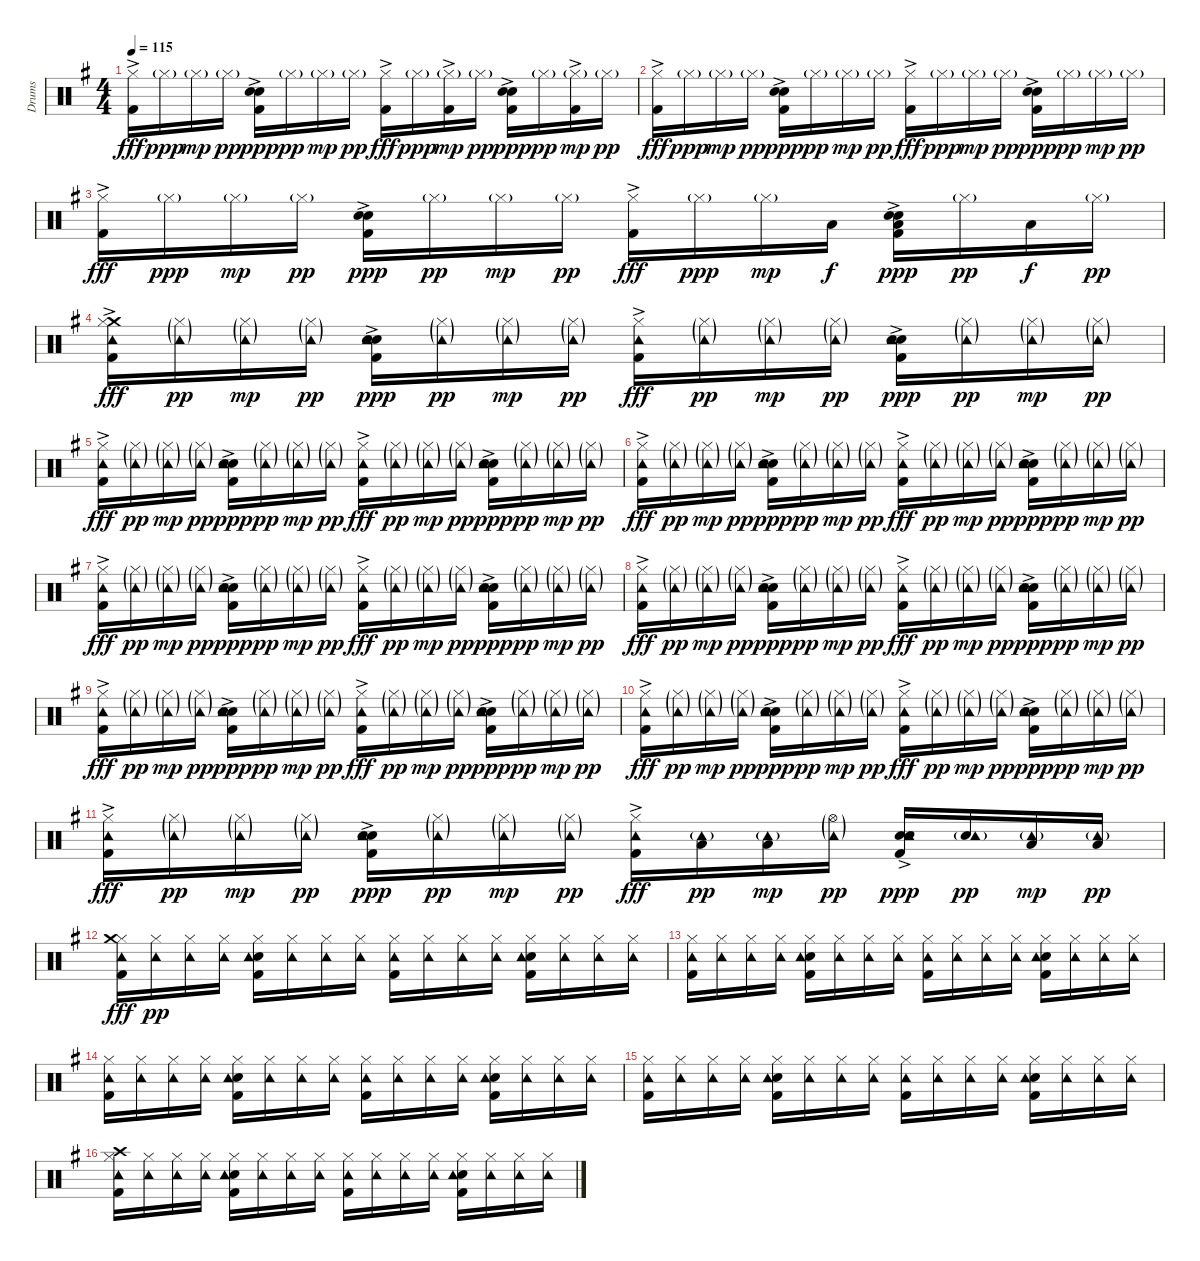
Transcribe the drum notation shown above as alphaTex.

\track ("Drums" "Drums") {instrument percussion}
\staff {score}
\articulation defaults
\ts (4 4)
\tempo 115
\clef neutral
\ks g
("Kick (hit) 2"{ac} "Hi-Hat (closed)").16{dy fff} "Hi-Hat (closed)"{g}.16{dy ppp} "Hi-Hat (closed)"{g}.16{dy mp} "Hi-Hat (closed)"{g}.16{dy pp} ("Kick (hit) 2"{ac} "Snare (hit) 2"{ac} "Electric Snare (hit)").16{dy ppp} "Hi-Hat (closed)"{g}.16{dy pp} "Hi-Hat (closed)"{g}.16{dy mp} "Hi-Hat (closed)"{g}.16{dy pp} ("Kick (hit) 2"{ac} "Hi-Hat (closed)").16{dy fff} "Hi-Hat (closed)"{g}.16{dy ppp} ("Kick (hit) 2"{ac} "Hi-Hat (closed)"{g}).16{dy mp} "Hi-Hat (closed)"{g}.16{dy pp} ("Kick (hit) 2"{ac} "Snare (hit) 2"{ac} "Electric Snare (hit)").16{dy ppp} "Hi-Hat (closed)"{g}.16{dy pp} ("Kick (hit) 2"{ac} "Hi-Hat (closed)"{g}).16{dy mp} "Hi-Hat (closed)"{g}.16{dy pp} |
("Kick (hit) 2"{ac} "Hi-Hat (closed)").16{dy fff} "Hi-Hat (closed)"{g}.16{dy ppp} "Hi-Hat (closed)"{g}.16{dy mp} "Hi-Hat (closed)"{g}.16{dy pp} ("Kick (hit) 2"{ac} "Snare (hit) 2"{ac} "Electric Snare (hit)").16{dy ppp} "Hi-Hat (closed)"{g}.16{dy pp} "Hi-Hat (closed)"{g}.16{dy mp} "Hi-Hat (closed)"{g}.16{dy pp} ("Kick (hit) 2"{ac} "Hi-Hat (closed)").16{dy fff} "Hi-Hat (closed)"{g}.16{dy ppp} "Hi-Hat (closed)"{g}.16{dy mp} "Hi-Hat (closed)"{g}.16{dy pp} ("Kick (hit) 2"{ac} "Snare (hit) 2"{ac} "Electric Snare (hit)").16{dy ppp} "Hi-Hat (closed)"{g}.16{dy pp} "Hi-Hat (closed)"{g}.16{dy mp} "Hi-Hat (closed)"{g}.16{dy pp} |
("Kick (hit) 2"{ac} "Hi-Hat (closed)").16{dy fff} "Hi-Hat (closed)"{g}.16{dy ppp} "Hi-Hat (closed)"{g}.16{dy mp} "Hi-Hat (closed)"{g}.16{dy pp} ("Kick (hit) 2"{ac} "Snare (hit) 2"{ac} "Electric Snare (hit)").16{dy ppp} "Hi-Hat (closed)"{g}.16{dy pp} "Hi-Hat (closed)"{g}.16{dy mp} "Hi-Hat (closed)"{g}.16{dy pp} ("Kick (hit) 2"{ac} "Hi-Hat (closed)").16{dy fff} "Hi-Hat (closed)"{g}.16{dy ppp} "Hi-Hat (closed)"{g}.16{dy mp} "Low Tom (hit)".16{dy f} ("Kick (hit) 2"{ac} "Snare (hit) 2"{ac} "Electric Snare (hit)" "Low Tom (hit)").16{dy ppp} "Hi-Hat (closed)"{g}.16{dy pp} "Low Floor Tom (hit)".16{dy f} "Hi-Hat (closed)"{g}.16{dy pp} |
("Kick (hit) 2"{ac} "Crash medium (hit)" "Hi-Hat (closed)" "Tambourine (hit)").16{dy fff} ("Hi-Hat (closed)"{g} "Tambourine (hit)"{g}).16{dy pp} ("Hi-Hat (closed)"{g} "Tambourine (hit)"{g}).16{dy mp} ("Hi-Hat (closed)"{g} "Tambourine (hit)"{g}).16{dy pp} ("Kick (hit) 2"{ac} "Snare (hit) 2"{ac} "Electric Snare (hit)" "Tambourine (hit)").16{dy ppp} ("Hi-Hat (closed)"{g} "Tambourine (hit)"{g}).16{dy pp} ("Hi-Hat (closed)"{g} "Tambourine (hit)"{g}).16{dy mp} ("Hi-Hat (closed)"{g} "Tambourine (hit)"{g}).16{dy pp} ("Kick (hit) 2"{ac} "Hi-Hat (closed)" "Tambourine (hit)").16{dy fff} ("Hi-Hat (closed)"{g} "Tambourine (hit)"{g}).16{dy pp} ("Hi-Hat (closed)"{g} "Tambourine (hit)"{g}).16{dy mp} ("Hi-Hat (closed)"{g} "Tambourine (hit)"{g}).16{dy pp} ("Kick (hit) 2"{ac} "Snare (hit) 2"{ac} "Electric Snare (hit)" "Tambourine (hit)").16{dy ppp} ("Hi-Hat (closed)"{g} "Tambourine (hit)"{g}).16{dy pp} ("Hi-Hat (closed)"{g} "Tambourine (hit)"{g}).16{dy mp} ("Hi-Hat (closed)"{g} "Tambourine (hit)"{g}).16{dy pp} |
("Kick (hit) 2"{ac} "Hi-Hat (closed)" "Tambourine (hit)").16{dy fff} ("Hi-Hat (closed)"{g} "Tambourine (hit)"{g}).16{dy pp} ("Hi-Hat (closed)"{g} "Tambourine (hit)"{g}).16{dy mp} ("Hi-Hat (closed)"{g} "Tambourine (hit)"{g}).16{dy pp} ("Kick (hit) 2"{ac} "Snare (hit) 2"{ac} "Electric Snare (hit)" "Tambourine (hit)").16{dy ppp} ("Hi-Hat (closed)"{g} "Tambourine (hit)"{g}).16{dy pp} ("Hi-Hat (closed)"{g} "Tambourine (hit)"{g}).16{dy mp} ("Hi-Hat (closed)"{g} "Tambourine (hit)"{g}).16{dy pp} ("Kick (hit) 2"{ac} "Hi-Hat (closed)" "Tambourine (hit)").16{dy fff} ("Hi-Hat (closed)"{g} "Tambourine (hit)"{g}).16{dy pp} ("Hi-Hat (closed)"{g} "Tambourine (hit)"{g}).16{dy mp} ("Hi-Hat (closed)"{g} "Tambourine (hit)"{g}).16{dy pp} ("Kick (hit) 2"{ac} "Snare (hit) 2"{ac} "Electric Snare (hit)" "Tambourine (hit)").16{dy ppp} ("Hi-Hat (closed)"{g} "Tambourine (hit)"{g}).16{dy pp} ("Hi-Hat (closed)"{g} "Tambourine (hit)"{g}).16{dy mp} ("Hi-Hat (closed)"{g} "Tambourine (hit)"{g}).16{dy pp} |
("Kick (hit) 2"{ac} "Hi-Hat (closed)" "Tambourine (hit)").16{dy fff} ("Hi-Hat (closed)"{g} "Tambourine (hit)"{g}).16{dy pp} ("Hi-Hat (closed)"{g} "Tambourine (hit)"{g}).16{dy mp} ("Hi-Hat (closed)"{g} "Tambourine (hit)"{g}).16{dy pp} ("Kick (hit) 2"{ac} "Snare (hit) 2"{ac} "Electric Snare (hit)" "Tambourine (hit)").16{dy ppp} ("Hi-Hat (closed)"{g} "Tambourine (hit)"{g}).16{dy pp} ("Hi-Hat (closed)"{g} "Tambourine (hit)"{g}).16{dy mp} ("Hi-Hat (closed)"{g} "Tambourine (hit)"{g}).16{dy pp} ("Kick (hit) 2"{ac} "Hi-Hat (closed)" "Tambourine (hit)").16{dy fff} ("Hi-Hat (closed)"{g} "Tambourine (hit)"{g}).16{dy pp} ("Hi-Hat (closed)"{g} "Tambourine (hit)"{g}).16{dy mp} ("Hi-Hat (closed)"{g} "Tambourine (hit)"{g}).16{dy pp} ("Kick (hit) 2"{ac} "Snare (hit) 2"{ac} "Electric Snare (hit)" "Tambourine (hit)").16{dy ppp} ("Hi-Hat (closed)"{g} "Tambourine (hit)"{g}).16{dy pp} ("Hi-Hat (closed)"{g} "Tambourine (hit)"{g}).16{dy mp} ("Hi-Hat (closed)"{g} "Tambourine (hit)"{g}).16{dy pp} |
("Kick (hit) 2"{ac} "Hi-Hat (closed)" "Tambourine (hit)").16{dy fff} ("Hi-Hat (closed)"{g} "Tambourine (hit)"{g}).16{dy pp} ("Hi-Hat (closed)"{g} "Tambourine (hit)"{g}).16{dy mp} ("Hi-Hat (closed)"{g} "Tambourine (hit)"{g}).16{dy pp} ("Kick (hit) 2"{ac} "Snare (hit) 2"{ac} "Electric Snare (hit)" "Tambourine (hit)").16{dy ppp} ("Hi-Hat (closed)"{g} "Tambourine (hit)"{g}).16{dy pp} ("Hi-Hat (closed)"{g} "Tambourine (hit)"{g}).16{dy mp} ("Hi-Hat (closed)"{g} "Tambourine (hit)"{g}).16{dy pp} ("Kick (hit) 2"{ac} "Hi-Hat (closed)" "Tambourine (hit)").16{dy fff} ("Hi-Hat (closed)"{g} "Tambourine (hit)"{g}).16{dy pp} ("Hi-Hat (closed)"{g} "Tambourine (hit)"{g}).16{dy mp} ("Hi-Hat (closed)"{g} "Tambourine (hit)"{g}).16{dy pp} ("Kick (hit) 2"{ac} "Snare (hit) 2"{ac} "Electric Snare (hit)" "Tambourine (hit)").16{dy ppp} ("Hi-Hat (closed)"{g} "Tambourine (hit)"{g}).16{dy pp} ("Hi-Hat (closed)"{g} "Tambourine (hit)"{g}).16{dy mp} ("Hi-Hat (closed)"{g} "Tambourine (hit)"{g}).16{dy pp} |
("Kick (hit) 2"{ac} "Hi-Hat (closed)" "Tambourine (hit)").16{dy fff} ("Hi-Hat (closed)"{g} "Tambourine (hit)"{g}).16{dy pp} ("Hi-Hat (closed)"{g} "Tambourine (hit)"{g}).16{dy mp} ("Hi-Hat (closed)"{g} "Tambourine (hit)"{g}).16{dy pp} ("Kick (hit) 2"{ac} "Snare (hit) 2"{ac} "Electric Snare (hit)" "Tambourine (hit)").16{dy ppp} ("Hi-Hat (closed)"{g} "Tambourine (hit)"{g}).16{dy pp} ("Hi-Hat (closed)"{g} "Tambourine (hit)"{g}).16{dy mp} ("Hi-Hat (closed)"{g} "Tambourine (hit)"{g}).16{dy pp} ("Kick (hit) 2"{ac} "Hi-Hat (closed)" "Tambourine (hit)").16{dy fff} ("Hi-Hat (closed)"{g} "Tambourine (hit)"{g}).16{dy pp} ("Hi-Hat (closed)"{g} "Tambourine (hit)"{g}).16{dy mp} ("Hi-Hat (closed)"{g} "Tambourine (hit)"{g}).16{dy pp} ("Kick (hit) 2"{ac} "Snare (hit) 2"{ac} "Electric Snare (hit)" "Tambourine (hit)").16{dy ppp} ("Hi-Hat (closed)"{g} "Tambourine (hit)"{g}).16{dy pp} ("Hi-Hat (closed)"{g} "Tambourine (hit)"{g}).16{dy mp} ("Hi-Hat (closed)"{g} "Tambourine (hit)"{g}).16{dy pp} |
("Kick (hit) 2"{ac} "Hi-Hat (closed)" "Tambourine (hit)").16{dy fff} ("Hi-Hat (closed)"{g} "Tambourine (hit)"{g}).16{dy pp} ("Hi-Hat (closed)"{g} "Tambourine (hit)"{g}).16{dy mp} ("Hi-Hat (closed)"{g} "Tambourine (hit)"{g}).16{dy pp} ("Kick (hit) 2"{ac} "Snare (hit) 2"{ac} "Electric Snare (hit)" "Tambourine (hit)").16{dy ppp} ("Hi-Hat (closed)"{g} "Tambourine (hit)"{g}).16{dy pp} ("Hi-Hat (closed)"{g} "Tambourine (hit)"{g}).16{dy mp} ("Hi-Hat (closed)"{g} "Tambourine (hit)"{g}).16{dy pp} ("Kick (hit) 2"{ac} "Hi-Hat (closed)" "Tambourine (hit)").16{dy fff} ("Hi-Hat (closed)"{g} "Tambourine (hit)"{g}).16{dy pp} ("Hi-Hat (closed)"{g} "Tambourine (hit)"{g}).16{dy mp} ("Hi-Hat (closed)"{g} "Tambourine (hit)"{g}).16{dy pp} ("Kick (hit) 2"{ac} "Snare (hit) 2"{ac} "Electric Snare (hit)" "Tambourine (hit)").16{dy ppp} ("Hi-Hat (closed)"{g} "Tambourine (hit)"{g}).16{dy pp} ("Hi-Hat (closed)"{g} "Tambourine (hit)"{g}).16{dy mp} ("Hi-Hat (closed)"{g} "Tambourine (hit)"{g}).16{dy pp} |
("Kick (hit) 2"{ac} "Hi-Hat (closed)" "Tambourine (hit)").16{dy fff} ("Hi-Hat (closed)"{g} "Tambourine (hit)"{g}).16{dy pp} ("Hi-Hat (closed)"{g} "Tambourine (hit)"{g}).16{dy mp} ("Hi-Hat (closed)"{g} "Tambourine (hit)"{g}).16{dy pp} ("Kick (hit) 2"{ac} "Snare (hit) 2"{ac} "Electric Snare (hit)" "Tambourine (hit)").16{dy ppp} ("Hi-Hat (closed)"{g} "Tambourine (hit)"{g}).16{dy pp} ("Hi-Hat (closed)"{g} "Tambourine (hit)"{g}).16{dy mp} ("Hi-Hat (closed)"{g} "Tambourine (hit)"{g}).16{dy pp} ("Kick (hit) 2"{ac} "Hi-Hat (closed)" "Tambourine (hit)").16{dy fff} ("Hi-Hat (closed)"{g} "Tambourine (hit)"{g}).16{dy pp} ("Hi-Hat (closed)"{g} "Tambourine (hit)"{g}).16{dy mp} ("Hi-Hat (closed)"{g} "Tambourine (hit)"{g}).16{dy pp} ("Kick (hit) 2"{ac} "Snare (hit) 2"{ac} "Electric Snare (hit)" "Tambourine (hit)").16{dy ppp} ("Hi-Hat (closed)"{g} "Tambourine (hit)"{g}).16{dy pp} ("Hi-Hat (closed)"{g} "Tambourine (hit)"{g}).16{dy mp} ("Hi-Hat (closed)"{g} "Tambourine (hit)"{g}).16{dy pp} |
("Kick (hit) 2"{ac} "Hi-Hat (closed)" "Tambourine (hit)").16{dy fff} ("Hi-Hat (closed)"{g} "Tambourine (hit)"{g}).16{dy pp} ("Hi-Hat (closed)"{g} "Tambourine (hit)"{g}).16{dy mp} ("Hi-Hat (closed)"{g} "Tambourine (hit)"{g}).16{dy pp} ("Kick (hit) 2"{ac} "Snare (hit) 2"{ac} "Electric Snare (hit)" "Tambourine (hit)").16{dy ppp} ("Hi-Hat (closed)"{g} "Tambourine (hit)"{g}).16{dy pp} ("Hi-Hat (closed)"{g} "Tambourine (hit)"{g}).16{dy mp} ("Hi-Hat (closed)"{g} "Tambourine (hit)"{g}).16{dy pp} ("Kick (hit) 2"{ac} "Hi-Hat (closed)" "Tambourine (hit)").16{dy fff} ("Low Floor Tom (hit)" "Tambourine (hit)"{g}).16{dy pp} ("Low Tom (hit)" "Tambourine (hit)"{g}).16{dy mp} ("Hi-Hat (open)"{g} "Tambourine (hit)"{g}).16{dy pp} ("Kick (hit) 2"{ac} "Snare (hit) 2"{ac} "Electric Snare (hit)" "Tambourine (hit)").16{dy ppp} ("Snare (hit) 2" "Tambourine (hit)"{g}).16{dy pp} ("Low Tom (hit)" "Tambourine (hit)"{g}).16{dy mp} ("Low Floor Tom (hit)" "Tambourine (hit)"{g}).16{dy pp} |
("Kick (hit) 2" "Hi-Hat (closed)" "Tambourine (hit)" "Crash medium (hit)").16{dy fff} ("Hi-Hat (closed)" "Tambourine (hit)").16{dy pp} ("Hi-Hat (closed)" "Tambourine (hit)").16 ("Hi-Hat (closed)" "Tambourine (hit)").16 ("Kick (hit) 2" "Snare (hit) 2" "Hi-Hat (closed)" "Tambourine (hit)").16 ("Hi-Hat (closed)" "Tambourine (hit)").16 ("Hi-Hat (closed)" "Tambourine (hit)").16 ("Hi-Hat (closed)" "Tambourine (hit)").16 ("Kick (hit) 2" "Hi-Hat (closed)" "Tambourine (hit)").16 ("Hi-Hat (closed)" "Tambourine (hit)").16 ("Hi-Hat (closed)" "Tambourine (hit)").16 ("Hi-Hat (closed)" "Tambourine (hit)").16 ("Kick (hit) 2" "Snare (hit) 2" "Hi-Hat (closed)" "Tambourine (hit)").16 ("Hi-Hat (closed)" "Tambourine (hit)").16 ("Hi-Hat (closed)" "Tambourine (hit)").16 ("Hi-Hat (closed)" "Tambourine (hit)").16 |
("Kick (hit) 2" "Hi-Hat (closed)" "Tambourine (hit)").16 ("Hi-Hat (closed)" "Tambourine (hit)").16 ("Hi-Hat (closed)" "Tambourine (hit)").16 ("Hi-Hat (closed)" "Tambourine (hit)").16 ("Kick (hit) 2" "Snare (hit) 2" "Hi-Hat (closed)" "Tambourine (hit)").16 ("Hi-Hat (closed)" "Tambourine (hit)").16 ("Hi-Hat (closed)" "Tambourine (hit)").16 ("Hi-Hat (closed)" "Tambourine (hit)").16 ("Kick (hit) 2" "Hi-Hat (closed)" "Tambourine (hit)").16 ("Hi-Hat (closed)" "Tambourine (hit)").16 ("Hi-Hat (closed)" "Tambourine (hit)").16 ("Hi-Hat (closed)" "Tambourine (hit)").16 ("Kick (hit) 2" "Snare (hit) 2" "Hi-Hat (closed)" "Tambourine (hit)").16 ("Hi-Hat (closed)" "Tambourine (hit)").16 ("Hi-Hat (closed)" "Tambourine (hit)").16 ("Hi-Hat (closed)" "Tambourine (hit)").16 |
("Kick (hit) 2" "Hi-Hat (closed)" "Tambourine (hit)").16 ("Hi-Hat (closed)" "Tambourine (hit)").16 ("Hi-Hat (closed)" "Tambourine (hit)").16 ("Hi-Hat (closed)" "Tambourine (hit)").16 ("Kick (hit) 2" "Snare (hit) 2" "Hi-Hat (closed)" "Tambourine (hit)").16 ("Hi-Hat (closed)" "Tambourine (hit)").16 ("Hi-Hat (closed)" "Tambourine (hit)").16 ("Hi-Hat (closed)" "Tambourine (hit)").16 ("Kick (hit) 2" "Hi-Hat (closed)" "Tambourine (hit)").16 ("Hi-Hat (closed)" "Tambourine (hit)").16 ("Hi-Hat (closed)" "Tambourine (hit)").16 ("Hi-Hat (closed)" "Tambourine (hit)").16 ("Kick (hit) 2" "Snare (hit) 2" "Hi-Hat (closed)" "Tambourine (hit)").16 ("Hi-Hat (closed)" "Tambourine (hit)").16 ("Hi-Hat (closed)" "Tambourine (hit)").16 ("Hi-Hat (closed)" "Tambourine (hit)").16 |
("Kick (hit) 2" "Hi-Hat (closed)" "Tambourine (hit)").16 ("Hi-Hat (closed)" "Tambourine (hit)").16 ("Hi-Hat (closed)" "Tambourine (hit)").16 ("Hi-Hat (closed)" "Tambourine (hit)").16 ("Kick (hit) 2" "Snare (hit) 2" "Hi-Hat (closed)" "Tambourine (hit)").16 ("Hi-Hat (closed)" "Tambourine (hit)").16 ("Hi-Hat (closed)" "Tambourine (hit)").16 ("Hi-Hat (closed)" "Tambourine (hit)").16 ("Kick (hit) 2" "Hi-Hat (closed)" "Tambourine (hit)").16 ("Hi-Hat (closed)" "Tambourine (hit)").16 ("Hi-Hat (closed)" "Tambourine (hit)").16 ("Hi-Hat (closed)" "Tambourine (hit)").16 ("Kick (hit) 2" "Snare (hit) 2" "Hi-Hat (closed)" "Tambourine (hit)").16 ("Hi-Hat (closed)" "Tambourine (hit)").16 ("Hi-Hat (closed)" "Tambourine (hit)").16 ("Hi-Hat (closed)" "Tambourine (hit)").16 |
("Kick (hit) 2" "Hi-Hat (closed)" "Tambourine (hit)" "Crash high (hit)").16 ("Hi-Hat (closed)" "Tambourine (hit)").16 ("Hi-Hat (closed)" "Tambourine (hit)").16 ("Hi-Hat (closed)" "Tambourine (hit)").16 ("Kick (hit) 2" "Snare (hit) 2" "Hi-Hat (closed)" "Tambourine (hit)").16 ("Hi-Hat (closed)" "Tambourine (hit)").16 ("Hi-Hat (closed)" "Tambourine (hit)").16 ("Hi-Hat (closed)" "Tambourine (hit)").16 ("Kick (hit) 2" "Hi-Hat (closed)" "Tambourine (hit)").16 ("Hi-Hat (closed)" "Tambourine (hit)").16 ("Hi-Hat (closed)" "Tambourine (hit)").16 ("Hi-Hat (closed)" "Tambourine (hit)").16 ("Kick (hit) 2" "Snare (hit) 2" "Hi-Hat (closed)" "Tambourine (hit)").16 ("Hi-Hat (closed)" "Tambourine (hit)").16 ("Hi-Hat (closed)" "Tambourine (hit)").16 ("Hi-Hat (closed)" "Tambourine (hit)").16
